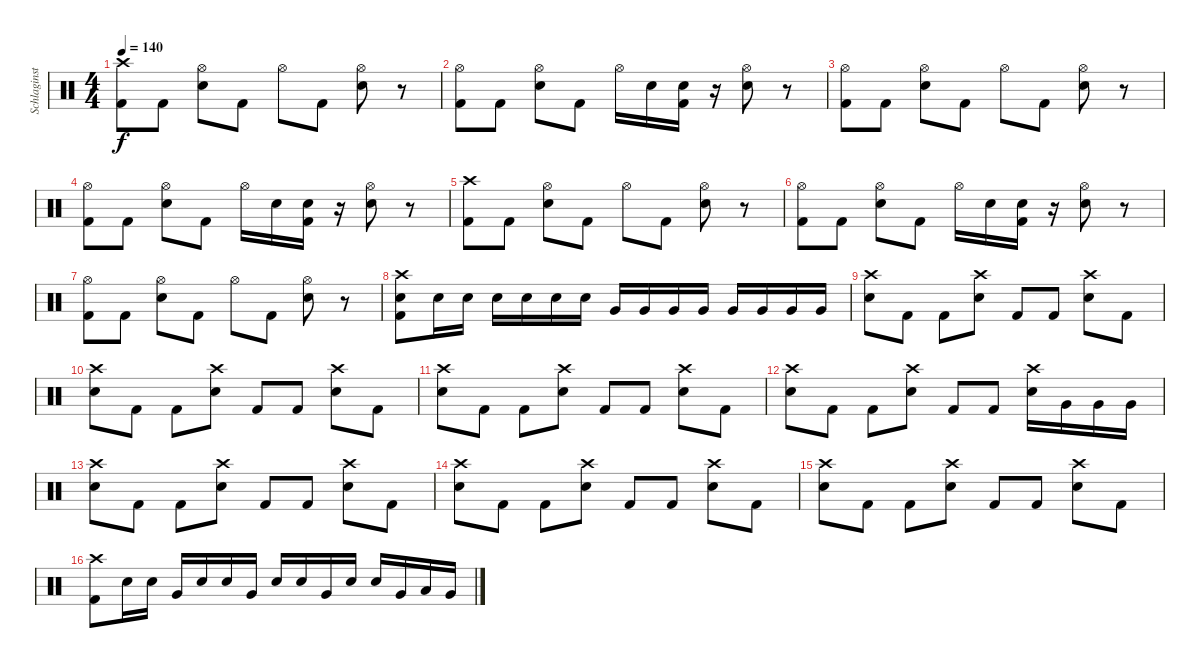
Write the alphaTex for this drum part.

\track ("Schlaginstrumente - Auswahl" "Schlaginst") {instrument percussion}
\staff {score}
\articulation defaults
\ts (4 4)
\tempo 140
\clef neutral
\ks c
("Crash high (hit)" "Kick (hit) 2").8{dy f} "Kick (hit) 2".8 ("Hi-Hat (open)" "Snare (hit) 2").8 "Kick (hit) 2".8 "Hi-Hat (open)".8 "Kick (hit) 2".8 ("Hi-Hat (open)" "Snare (hit) 2").8 r.8 |
("Hi-Hat (open)" "Kick (hit) 2").8 "Kick (hit) 2".8 ("Hi-Hat (open)" "Snare (hit) 2").8 "Kick (hit) 2".8 "Hi-Hat (open)".16 "Snare (hit) 2".16 ("Snare (hit) 2" "Kick (hit) 2").16 r.16 ("Hi-Hat (open)" "Snare (hit) 2").8 r.8 |
("Hi-Hat (open)" "Kick (hit) 2").8 "Kick (hit) 2".8 ("Hi-Hat (open)" "Snare (hit) 2").8 "Kick (hit) 2".8 "Hi-Hat (open)".8 "Kick (hit) 2".8 ("Hi-Hat (open)" "Snare (hit) 2").8 r.8 |
("Hi-Hat (open)" "Kick (hit) 2").8 "Kick (hit) 2".8 ("Hi-Hat (open)" "Snare (hit) 2").8 "Kick (hit) 2".8 "Hi-Hat (open)".16 "Snare (hit) 2".16 ("Snare (hit) 2" "Kick (hit) 2").16 r.16 ("Hi-Hat (open)" "Snare (hit) 2").8 r.8 |
("Crash high (hit)" "Kick (hit) 2").8 "Kick (hit) 2".8 ("Hi-Hat (open)" "Snare (hit) 2").8 "Kick (hit) 2".8 "Hi-Hat (open)".8 "Kick (hit) 2".8 ("Hi-Hat (open)" "Snare (hit) 2").8 r.8 |
("Hi-Hat (open)" "Kick (hit) 2").8 "Kick (hit) 2".8 ("Hi-Hat (open)" "Snare (hit) 2").8 "Kick (hit) 2".8 "Hi-Hat (open)".16 "Snare (hit) 2".16 ("Snare (hit) 2" "Kick (hit) 2").16 r.16 ("Hi-Hat (open)" "Snare (hit) 2").8 r.8 |
("Hi-Hat (open)" "Kick (hit) 2").8 "Kick (hit) 2".8 ("Hi-Hat (open)" "Snare (hit) 2").8 "Kick (hit) 2".8 "Hi-Hat (open)".8 "Kick (hit) 2".8 ("Hi-Hat (open)" "Snare (hit) 2").8 r.8 |
("Crash high (hit)" "Snare (hit) 2" "Kick (hit) 2").8 "Snare (hit) 2".16 "Snare (hit) 2".16 "Snare (hit) 2".16 "Snare (hit) 2".16 "Snare (hit) 2".16 "Snare (hit) 2".16 "Very Low Tom (hit)".16 "Very Low Tom (hit)".16 "Very Low Tom (hit)".16 "Very Low Tom (hit)".16 "Very Low Tom (hit)".16 "Very Low Tom (hit)".16 "Very Low Tom (hit)".16 "Very Low Tom (hit)".16 |
("Crash high (hit)" "Snare (hit) 2").8 "Kick (hit) 2".8 "Kick (hit) 2".8 ("Crash high (hit)" "Snare (hit) 2").8 "Kick (hit) 2".8 "Kick (hit) 2".8 ("Crash high (hit)" "Snare (hit) 2").8 "Kick (hit) 2".8 |
("Crash high (hit)" "Snare (hit) 2").8 "Kick (hit) 2".8 "Kick (hit) 2".8 ("Crash high (hit)" "Snare (hit) 2").8 "Kick (hit) 2".8 "Kick (hit) 2".8 ("Crash high (hit)" "Snare (hit) 2").8 "Kick (hit) 2".8 |
("Crash high (hit)" "Snare (hit) 2").8 "Kick (hit) 2".8 "Kick (hit) 2".8 ("Crash high (hit)" "Snare (hit) 2").8 "Kick (hit) 2".8 "Kick (hit) 2".8 ("Crash high (hit)" "Snare (hit) 2").8 "Kick (hit) 2".8 |
("Crash high (hit)" "Snare (hit) 2").8 "Kick (hit) 2".8 "Kick (hit) 2".8 ("Crash high (hit)" "Snare (hit) 2").8 "Kick (hit) 2".8 "Kick (hit) 2".8 ("Crash high (hit)" "Snare (hit) 2").16 "Very Low Tom (hit)".16 "Very Low Tom (hit)".16 "Very Low Tom (hit)".16 |
("Crash high (hit)" "Snare (hit) 2").8 "Kick (hit) 2".8 "Kick (hit) 2".8 ("Crash high (hit)" "Snare (hit) 2").8 "Kick (hit) 2".8 "Kick (hit) 2".8 ("Crash high (hit)" "Snare (hit) 2").8 "Kick (hit) 2".8 |
("Crash high (hit)" "Snare (hit) 2").8 "Kick (hit) 2".8 "Kick (hit) 2".8 ("Crash high (hit)" "Snare (hit) 2").8 "Kick (hit) 2".8 "Kick (hit) 2".8 ("Crash high (hit)" "Snare (hit) 2").8 "Kick (hit) 2".8 |
("Crash high (hit)" "Snare (hit) 2").8 "Kick (hit) 2".8 "Kick (hit) 2".8 ("Crash high (hit)" "Snare (hit) 2").8 "Kick (hit) 2".8 "Kick (hit) 2".8 ("Crash high (hit)" "Snare (hit) 2").8 "Kick (hit) 2".8 |
("Crash high (hit)" "Kick (hit) 2").8 "Snare (hit) 2".16 "Snare (hit) 2".16 "Very Low Tom (hit)".16 "Snare (hit) 2".16 "Snare (hit) 2".16 "Very Low Tom (hit)".16 "Snare (hit) 2".16 "Snare (hit) 2".16 "Very Low Tom (hit)".16 "Snare (hit) 2".16 "Snare (hit) 2".16 "Very Low Tom (hit)".16 "Low Tom (hit)".16 "Very Low Tom (hit)".16
